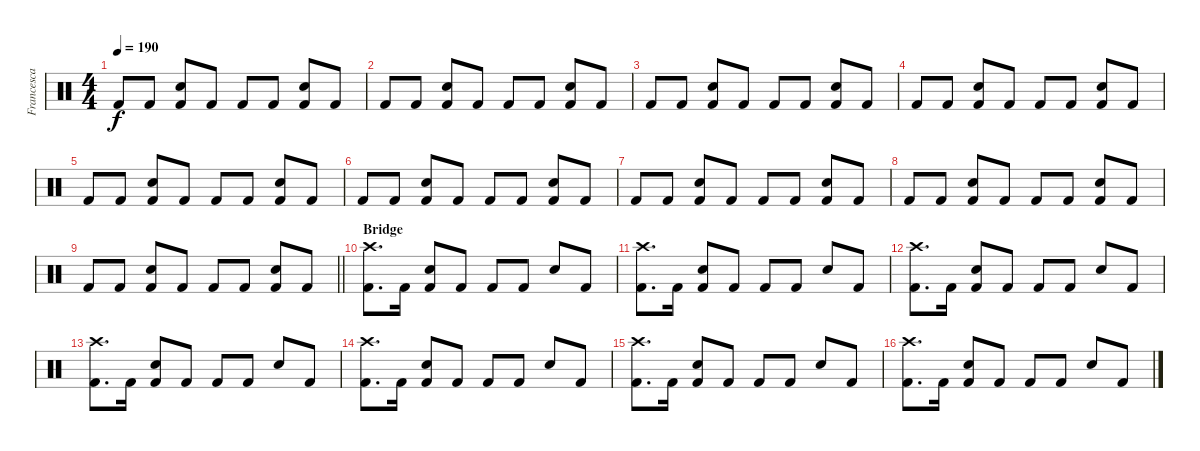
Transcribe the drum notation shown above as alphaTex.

\track ("Francesca Tresca" "Francesca ") {instrument percussion}
\staff {score}
\articulation defaults
\ts (4 4)
\tempo 190
\clef neutral
\ks c "Kick (hit) 2".8{dy f} "Kick (hit) 2".8
("Snare (hit) 2" "Kick (hit) 2").8 "Kick (hit) 2".8 "Kick (hit) 2".8 "Kick (hit) 2".8 ("Snare (hit) 2" "Kick (hit) 2").8 "Kick (hit) 2".8 |
"Kick (hit) 2".8 "Kick (hit) 2".8 ("Snare (hit) 2" "Kick (hit) 2").8 "Kick (hit) 2".8 "Kick (hit) 2".8 "Kick (hit) 2".8 ("Snare (hit) 2" "Kick (hit) 2").8 "Kick (hit) 2".8 |
"Kick (hit) 2".8 "Kick (hit) 2".8 ("Snare (hit) 2" "Kick (hit) 2").8 "Kick (hit) 2".8 "Kick (hit) 2".8 "Kick (hit) 2".8 ("Snare (hit) 2" "Kick (hit) 2").8 "Kick (hit) 2".8 |
"Kick (hit) 2".8 "Kick (hit) 2".8 ("Snare (hit) 2" "Kick (hit) 2").8 "Kick (hit) 2".8 "Kick (hit) 2".8 "Kick (hit) 2".8 ("Snare (hit) 2" "Kick (hit) 2").8 "Kick (hit) 2".8 |
"Kick (hit) 2".8 "Kick (hit) 2".8 ("Snare (hit) 2" "Kick (hit) 2").8 "Kick (hit) 2".8 "Kick (hit) 2".8 "Kick (hit) 2".8 ("Snare (hit) 2" "Kick (hit) 2").8 "Kick (hit) 2".8 |
"Kick (hit) 2".8 "Kick (hit) 2".8 ("Snare (hit) 2" "Kick (hit) 2").8 "Kick (hit) 2".8 "Kick (hit) 2".8 "Kick (hit) 2".8 ("Snare (hit) 2" "Kick (hit) 2").8 "Kick (hit) 2".8 |
"Kick (hit) 2".8 "Kick (hit) 2".8 ("Snare (hit) 2" "Kick (hit) 2").8 "Kick (hit) 2".8 "Kick (hit) 2".8 "Kick (hit) 2".8 ("Snare (hit) 2" "Kick (hit) 2").8 "Kick (hit) 2".8 |
"Kick (hit) 2".8 "Kick (hit) 2".8 ("Snare (hit) 2" "Kick (hit) 2").8 "Kick (hit) 2".8 "Kick (hit) 2".8 "Kick (hit) 2".8 ("Snare (hit) 2" "Kick (hit) 2").8 "Kick (hit) 2".8 |
\barLineRight lightlight "Kick (hit) 2".8 "Kick (hit) 2".8
("Snare (hit) 2" "Kick (hit) 2").8 "Kick (hit) 2".8 "Kick (hit) 2".8 "Kick (hit) 2".8 ("Snare (hit) 2" "Kick (hit) 2").8 "Kick (hit) 2".8 |
\section ("" "Bridge")
("Crash high (hit)" "Kick (hit) 2").8{d} "Kick (hit) 2".16 ("Snare (hit) 2" "Kick (hit) 2").8 "Kick (hit) 2".8 "Kick (hit) 2".8 "Kick (hit) 2".8 "Snare (hit) 2".8 "Kick (hit) 2".8 |
("Crash high (hit)" "Kick (hit) 2").8{d} "Kick (hit) 2".16 ("Snare (hit) 2" "Kick (hit) 2").8 "Kick (hit) 2".8 "Kick (hit) 2".8 "Kick (hit) 2".8 "Snare (hit) 2".8 "Kick (hit) 2".8 |
("Crash high (hit)" "Kick (hit) 2").8{d} "Kick (hit) 2".16 ("Snare (hit) 2" "Kick (hit) 2").8 "Kick (hit) 2".8 "Kick (hit) 2".8 "Kick (hit) 2".8 "Snare (hit) 2".8 "Kick (hit) 2".8 |
("Crash high (hit)" "Kick (hit) 2").8{d} "Kick (hit) 2".16 ("Snare (hit) 2" "Kick (hit) 2").8 "Kick (hit) 2".8 "Kick (hit) 2".8 "Kick (hit) 2".8 "Snare (hit) 2".8 "Kick (hit) 2".8 |
("Crash high (hit)" "Kick (hit) 2").8{d} "Kick (hit) 2".16 ("Snare (hit) 2" "Kick (hit) 2").8 "Kick (hit) 2".8 "Kick (hit) 2".8 "Kick (hit) 2".8 "Snare (hit) 2".8 "Kick (hit) 2".8 |
("Crash high (hit)" "Kick (hit) 2").8{d} "Kick (hit) 2".16 ("Snare (hit) 2" "Kick (hit) 2").8 "Kick (hit) 2".8 "Kick (hit) 2".8 "Kick (hit) 2".8 "Snare (hit) 2".8 "Kick (hit) 2".8 |
("Crash high (hit)" "Kick (hit) 2").8{d} "Kick (hit) 2".16 ("Snare (hit) 2" "Kick (hit) 2").8 "Kick (hit) 2".8 "Kick (hit) 2".8 "Kick (hit) 2".8 "Snare (hit) 2".8 "Kick (hit) 2".8
